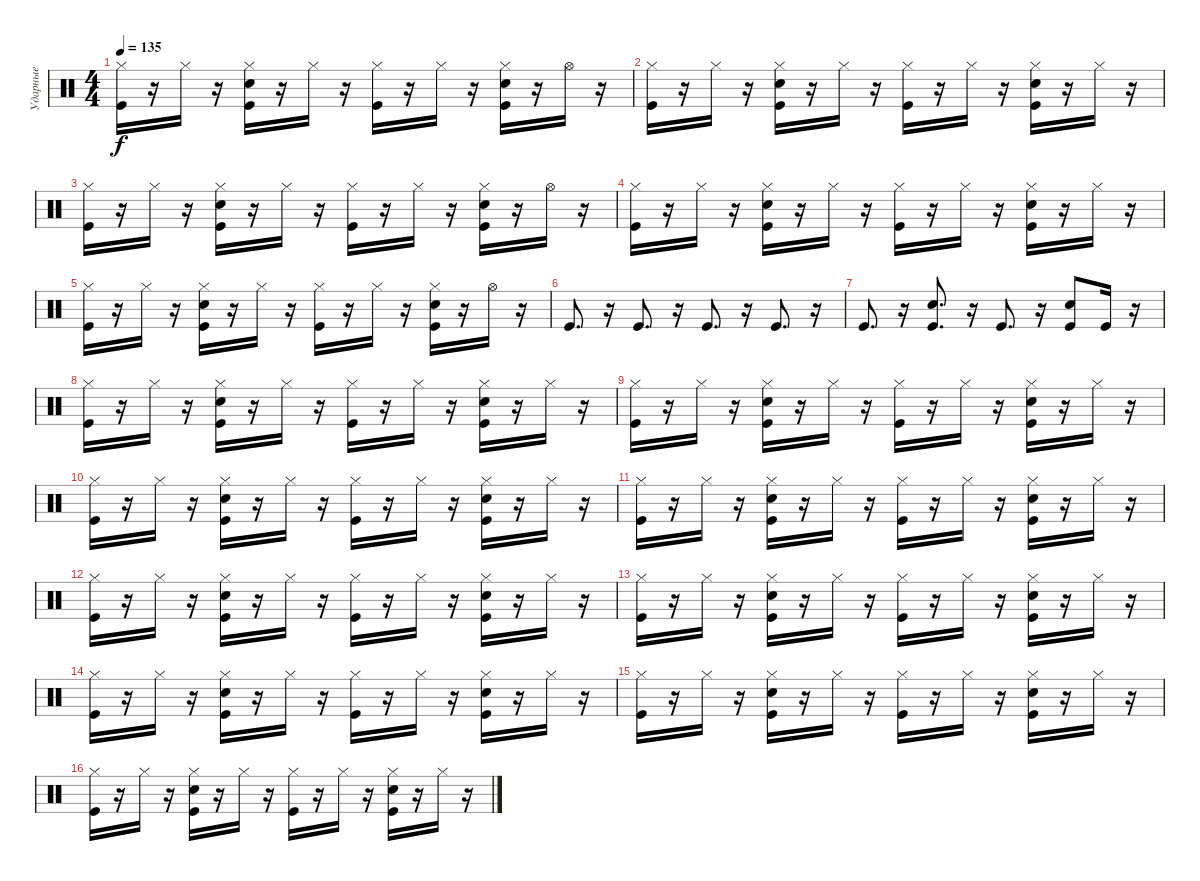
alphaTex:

\track ("Ударные" "Ударные") {instrument percussion}
\staff {score}
\articulation defaults
\ts (4 4)
\tempo 135
\clef neutral
\ks c
("Hi-Hat (closed)" "Kick (hit)").16{dy f} r.16 "Hi-Hat (closed)".16 r.16 ("Hi-Hat (closed)" "Kick (hit)" "Snare (hit) 2").16 r.16 "Hi-Hat (closed)".16 r.16 ("Hi-Hat (closed)" "Kick (hit)").16 r.16 "Hi-Hat (closed)".16 r.16 ("Hi-Hat (closed)" "Snare (hit) 2" "Kick (hit)").16 r.16 "Hi-Hat (open)".16 r.16 |
("Hi-Hat (closed)" "Kick (hit)").16 r.16 "Hi-Hat (closed)".16 r.16 ("Hi-Hat (closed)" "Kick (hit)" "Snare (hit) 2").16 r.16 "Hi-Hat (closed)".16 r.16 ("Hi-Hat (closed)" "Kick (hit)").16 r.16 "Hi-Hat (closed)".16 r.16 ("Hi-Hat (closed)" "Snare (hit) 2" "Kick (hit)").16 r.16 "Hi-Hat (closed)".16 r.16 |
("Hi-Hat (closed)" "Kick (hit)").16 r.16 "Hi-Hat (closed)".16 r.16 ("Hi-Hat (closed)" "Kick (hit)" "Snare (hit) 2").16 r.16 "Hi-Hat (closed)".16 r.16 ("Hi-Hat (closed)" "Kick (hit)").16 r.16 "Hi-Hat (closed)".16 r.16 ("Hi-Hat (closed)" "Snare (hit) 2" "Kick (hit)").16 r.16 "Hi-Hat (open)".16 r.16 |
("Hi-Hat (closed)" "Kick (hit)").16 r.16 "Hi-Hat (closed)".16 r.16 ("Hi-Hat (closed)" "Kick (hit)" "Snare (hit) 2").16 r.16 "Hi-Hat (closed)".16 r.16 ("Hi-Hat (closed)" "Kick (hit)").16 r.16 "Hi-Hat (closed)".16 r.16 ("Hi-Hat (closed)" "Snare (hit) 2" "Kick (hit)").16 r.16 "Hi-Hat (closed)".16 r.16 |
("Hi-Hat (closed)" "Kick (hit)").16 r.16 "Hi-Hat (closed)".16 r.16 ("Hi-Hat (closed)" "Kick (hit)" "Snare (hit) 2").16 r.16 "Hi-Hat (closed)".16 r.16 ("Hi-Hat (closed)" "Kick (hit)").16 r.16 "Hi-Hat (closed)".16 r.16 ("Hi-Hat (closed)" "Snare (hit) 2" "Kick (hit)").16 r.16 "Hi-Hat (open)".16 r.16 |
"Kick (hit)".8{d} r.16 "Kick (hit)".8{d} r.16 "Kick (hit)".8{d} r.16 "Kick (hit)".8{d} r.16 |
"Kick (hit)".8{d} r.16 ("Kick (hit)" "Snare (hit) 2").8{d} r.16 "Kick (hit)".8{d} r.16 ("Snare (hit) 2" "Kick (hit)").8 "Kick (hit)".16 r.16 |
("Hi-Hat (closed)" "Kick (hit)").16 r.16 "Hi-Hat (closed)".16 r.16 ("Hi-Hat (closed)" "Kick (hit)" "Snare (hit) 2").16 r.16 "Hi-Hat (closed)".16 r.16 ("Hi-Hat (closed)" "Kick (hit)").16 r.16 "Hi-Hat (closed)".16 r.16 ("Hi-Hat (closed)" "Snare (hit) 2" "Kick (hit)").16 r.16 "Hi-Hat (closed)".16 r.16 |
("Hi-Hat (closed)" "Kick (hit)").16 r.16 "Hi-Hat (closed)".16 r.16 ("Hi-Hat (closed)" "Kick (hit)" "Snare (hit) 2").16 r.16 "Hi-Hat (closed)".16 r.16 ("Hi-Hat (closed)" "Kick (hit)").16 r.16 "Hi-Hat (closed)".16 r.16 ("Hi-Hat (closed)" "Snare (hit) 2" "Kick (hit)").16 r.16 "Hi-Hat (closed)".16 r.16 |
("Hi-Hat (closed)" "Kick (hit)").16 r.16 "Hi-Hat (closed)".16 r.16 ("Hi-Hat (closed)" "Kick (hit)" "Snare (hit) 2").16 r.16 "Hi-Hat (closed)".16 r.16 ("Hi-Hat (closed)" "Kick (hit)").16 r.16 "Hi-Hat (closed)".16 r.16 ("Hi-Hat (closed)" "Snare (hit) 2" "Kick (hit)").16 r.16 "Hi-Hat (closed)".16 r.16 |
("Hi-Hat (closed)" "Kick (hit)").16 r.16 "Hi-Hat (closed)".16 r.16 ("Hi-Hat (closed)" "Kick (hit)" "Snare (hit) 2").16 r.16 "Hi-Hat (closed)".16 r.16 ("Hi-Hat (closed)" "Kick (hit)").16 r.16 "Hi-Hat (closed)".16 r.16 ("Hi-Hat (closed)" "Snare (hit) 2" "Kick (hit)").16 r.16 "Hi-Hat (closed)".16 r.16 |
("Hi-Hat (closed)" "Kick (hit)").16 r.16 "Hi-Hat (closed)".16 r.16 ("Hi-Hat (closed)" "Kick (hit)" "Snare (hit) 2").16 r.16 "Hi-Hat (closed)".16 r.16 ("Hi-Hat (closed)" "Kick (hit)").16 r.16 "Hi-Hat (closed)".16 r.16 ("Hi-Hat (closed)" "Snare (hit) 2" "Kick (hit)").16 r.16 "Hi-Hat (closed)".16 r.16 |
("Hi-Hat (closed)" "Kick (hit)").16 r.16 "Hi-Hat (closed)".16 r.16 ("Hi-Hat (closed)" "Kick (hit)" "Snare (hit) 2").16 r.16 "Hi-Hat (closed)".16 r.16 ("Hi-Hat (closed)" "Kick (hit)").16 r.16 "Hi-Hat (closed)".16 r.16 ("Hi-Hat (closed)" "Snare (hit) 2" "Kick (hit)").16 r.16 "Hi-Hat (closed)".16 r.16 |
("Hi-Hat (closed)" "Kick (hit)").16 r.16 "Hi-Hat (closed)".16 r.16 ("Hi-Hat (closed)" "Kick (hit)" "Snare (hit) 2").16 r.16 "Hi-Hat (closed)".16 r.16 ("Hi-Hat (closed)" "Kick (hit)").16 r.16 "Hi-Hat (closed)".16 r.16 ("Hi-Hat (closed)" "Snare (hit) 2" "Kick (hit)").16 r.16 "Hi-Hat (closed)".16 r.16 |
("Hi-Hat (closed)" "Kick (hit)").16 r.16 "Hi-Hat (closed)".16 r.16 ("Hi-Hat (closed)" "Kick (hit)" "Snare (hit) 2").16 r.16 "Hi-Hat (closed)".16 r.16 ("Hi-Hat (closed)" "Kick (hit)").16 r.16 "Hi-Hat (closed)".16 r.16 ("Hi-Hat (closed)" "Snare (hit) 2" "Kick (hit)").16 r.16 "Hi-Hat (closed)".16 r.16 |
("Hi-Hat (closed)" "Kick (hit)").16 r.16 "Hi-Hat (closed)".16 r.16 ("Hi-Hat (closed)" "Kick (hit)" "Snare (hit) 2").16 r.16 "Hi-Hat (closed)".16 r.16 ("Hi-Hat (closed)" "Kick (hit)").16 r.16 "Hi-Hat (closed)".16 r.16 ("Hi-Hat (closed)" "Snare (hit) 2" "Kick (hit)").16 r.16 "Hi-Hat (closed)".16 r.16
